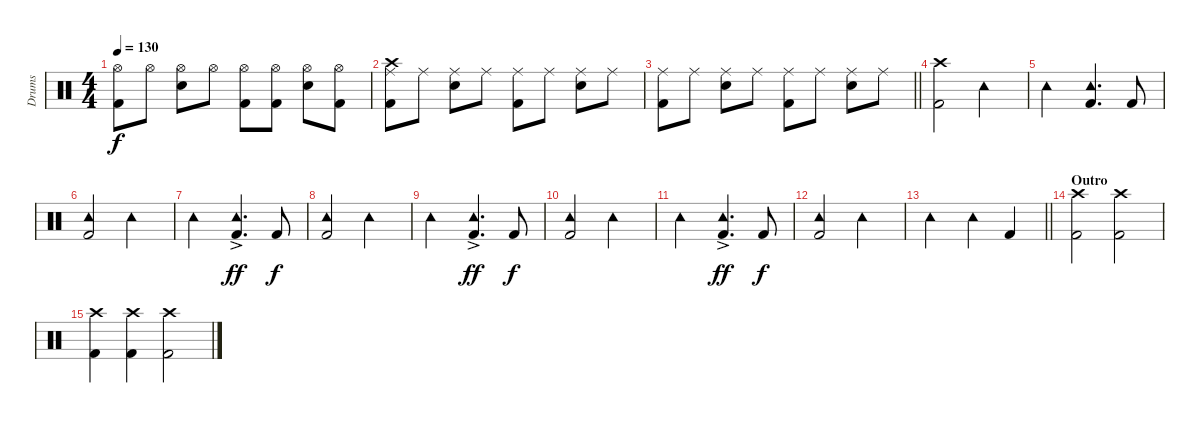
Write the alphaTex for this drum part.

\track ("Drums" "Drums") {instrument percussion}
\staff {score}
\articulation defaults
\ts (4 4)
\tempo 130
\clef neutral
\ks c
("Hi-Hat (open)" "Kick (hit) 2").8{dy f} "Hi-Hat (open)".8 ("Hi-Hat (open)" "Electric Snare (hit)").8 "Hi-Hat (open)".8 ("Hi-Hat (open)" "Kick (hit) 2").8 ("Hi-Hat (open)" "Kick (hit) 2").8 ("Hi-Hat (open)" "Electric Snare (hit)").8 ("Hi-Hat (open)" "Kick (hit) 2").8 |
("Crash high (hit)" "Ride (middle)" "Kick (hit) 2").8 "Ride (middle)".8 ("Ride (middle)" "Electric Snare (hit)").8 "Ride (middle)".8 ("Ride (middle)" "Kick (hit) 2").8 "Ride (middle)".8 ("Ride (middle)" "Electric Snare (hit)").8 "Ride (middle)".8 |
\barLineRight lightlight
("Ride (middle)" "Kick (hit) 2").8 "Ride (middle)".8 ("Ride (middle)" "Electric Snare (hit)").8 "Ride (middle)".8 ("Ride (middle)" "Kick (hit) 2").8 "Ride (middle)".8 ("Ride (middle)" "Electric Snare (hit)").8 "Ride (middle)".8 |
("Crash high (hit)" "Kick (hit) 2").2 "Tambourine (hit)".2 |
"Tambourine (hit)".2 ("Tambourine (hit)" "Kick (hit) 2").4{d} "Kick (hit) 2".8 |
("Tambourine (hit)" "Kick (hit) 2").2 "Tambourine (hit)".2 |
"Tambourine (hit)".2 ("Tambourine (hit)" "Kick (hit) 2"{ac}).4{d dy ff} "Kick (hit) 2".8{dy f} |
("Tambourine (hit)" "Kick (hit) 2").2 "Tambourine (hit)".2 |
"Tambourine (hit)".2 ("Tambourine (hit)" "Kick (hit) 2"{ac}).4{d dy ff} "Kick (hit) 2".8{dy f} |
("Tambourine (hit)" "Kick (hit) 2").2 "Tambourine (hit)".2 |
"Tambourine (hit)".2 ("Tambourine (hit)" "Kick (hit) 2"{ac}).4{d dy ff} "Kick (hit) 2".8{dy f} |
("Tambourine (hit)" "Kick (hit) 2").2 "Tambourine (hit)".2 |
\barLineRight lightlight "Tambourine (hit)".2 "Tambourine (hit)".4 "Kick (hit) 2".4
|
\section ("" "Outro")
("Crash high (hit)" "Kick (hit) 2").2 ("Crash high (hit)" "Kick (hit) 2").2 |
("Crash high (hit)" "Kick (hit) 2").4 ("Crash high (hit)" "Kick (hit) 2").4 ("Crash high (hit)" "Kick (hit) 2").2
